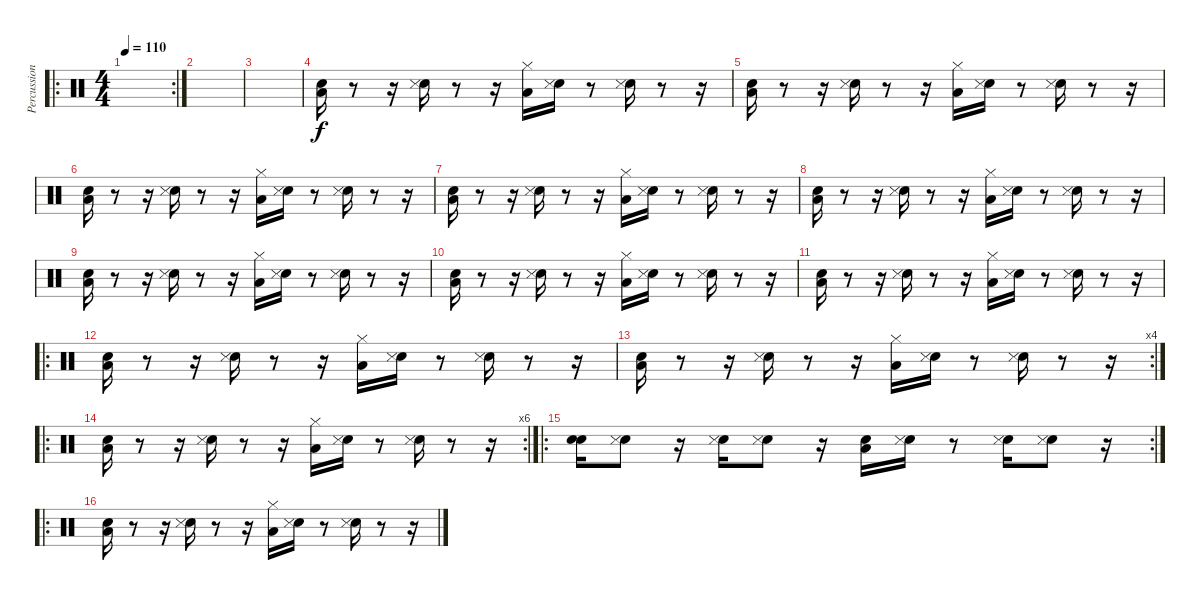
\track ("Percussions" "Percussion") {instrument percussion}
\staff {score}
\articulation defaults
\ro
\rc 2
\ts (4 4)
\tempo 110
\clef neutral
\ks c
|
|
|
("Low Floor Tom (hit)" "Snare (hit) 2").16 r.8 r.16 ("Electric Snare (hit)" "Snare (side stick) 3").16 r.8 r.16 ("Low Floor Tom (hit)" "Hi-Hat (closed)").16 ("Electric Snare (hit)" "Snare (side stick) 3").16 r.8 ("Electric Snare (hit)" "Snare (side stick) 3").16 r.8 r.16 |
("Low Floor Tom (hit)" "Snare (hit) 2").16 r.8 r.16 ("Electric Snare (hit)" "Snare (side stick) 3").16 r.8 r.16 ("Low Floor Tom (hit)" "Hi-Hat (closed)").16 ("Electric Snare (hit)" "Snare (side stick) 3").16 r.8 ("Electric Snare (hit)" "Snare (side stick) 3").16 r.8 r.16 |
("Low Floor Tom (hit)" "Snare (hit) 2").16 r.8 r.16 ("Electric Snare (hit)" "Snare (side stick) 3").16 r.8 r.16 ("Low Floor Tom (hit)" "Hi-Hat (closed)").16 ("Electric Snare (hit)" "Snare (side stick) 3").16 r.8 ("Electric Snare (hit)" "Snare (side stick) 3").16 r.8 r.16 |
("Low Floor Tom (hit)" "Snare (hit) 2").16 r.8 r.16 ("Electric Snare (hit)" "Snare (side stick) 3").16 r.8 r.16 ("Low Floor Tom (hit)" "Hi-Hat (closed)").16 ("Electric Snare (hit)" "Snare (side stick) 3").16 r.8 ("Electric Snare (hit)" "Snare (side stick) 3").16 r.8 r.16 |
("Low Floor Tom (hit)" "Snare (hit) 2").16 r.8 r.16 ("Electric Snare (hit)" "Snare (side stick) 3").16 r.8 r.16 ("Low Floor Tom (hit)" "Hi-Hat (closed)").16 ("Electric Snare (hit)" "Snare (side stick) 3").16 r.8 ("Electric Snare (hit)" "Snare (side stick) 3").16 r.8 r.16 |
("Low Floor Tom (hit)" "Snare (hit) 2").16 r.8 r.16 ("Electric Snare (hit)" "Snare (side stick) 3").16 r.8 r.16 ("Low Floor Tom (hit)" "Hi-Hat (closed)").16 ("Electric Snare (hit)" "Snare (side stick) 3").16 r.8 ("Electric Snare (hit)" "Snare (side stick) 3").16 r.8 r.16 |
("Low Floor Tom (hit)" "Snare (hit) 2").16 r.8 r.16 ("Electric Snare (hit)" "Snare (side stick) 3").16 r.8 r.16 ("Low Floor Tom (hit)" "Hi-Hat (closed)").16 ("Electric Snare (hit)" "Snare (side stick) 3").16 r.8 ("Electric Snare (hit)" "Snare (side stick) 3").16 r.8 r.16 |
("Low Floor Tom (hit)" "Snare (hit) 2").16 r.8 r.16 ("Electric Snare (hit)" "Snare (side stick) 3").16 r.8 r.16 ("Low Floor Tom (hit)" "Hi-Hat (closed)").16 ("Electric Snare (hit)" "Snare (side stick) 3").16 r.8 ("Electric Snare (hit)" "Snare (side stick) 3").16 r.8 r.16 |
\ro
("Low Floor Tom (hit)" "Snare (hit) 2").16 r.8 r.16 ("Electric Snare (hit)" "Snare (side stick) 3").16 r.8 r.16 ("Low Floor Tom (hit)" "Hi-Hat (closed)").16 ("Electric Snare (hit)" "Snare (side stick) 3").16 r.8 ("Electric Snare (hit)" "Snare (side stick) 3").16 r.8 r.16 |
\rc 4
("Low Floor Tom (hit)" "Snare (hit) 2").16 r.8 r.16 ("Electric Snare (hit)" "Snare (side stick) 3").16 r.8 r.16 ("Low Floor Tom (hit)" "Hi-Hat (closed)").16 ("Electric Snare (hit)" "Snare (side stick) 3").16 r.8 ("Electric Snare (hit)" "Snare (side stick) 3").16 r.8 r.16 |
\ro
\rc 6
("Low Floor Tom (hit)" "Snare (hit) 2").16 r.8 r.16 ("Electric Snare (hit)" "Snare (side stick) 3").16 r.8 r.16 ("Low Floor Tom (hit)" "Hi-Hat (closed)").16 ("Electric Snare (hit)" "Snare (side stick) 3").16 r.8 ("Electric Snare (hit)" "Snare (side stick) 3").16 r.8 r.16 |
\ro
\rc 2
("Electric Snare (hit)" "Snare (hit) 2").16 ("Electric Snare (hit)" "Snare (side stick) 3").8 r.16 ("Electric Snare (hit)" "Snare (side stick) 3").16 ("Electric Snare (hit)" "Snare (side stick) 3").8 r.16 ("Low Floor Tom (hit)" "Snare (hit) 2").16 ("Electric Snare (hit)" "Snare (side stick) 3").16 r.8 ("Electric Snare (hit)" "Snare (side stick) 3").16 ("Electric Snare (hit)" "Snare (side stick) 3").8 r.16 |
\ro
("Low Floor Tom (hit)" "Snare (hit) 2").16 r.8 r.16 ("Electric Snare (hit)" "Snare (side stick) 3").16 r.8 r.16 ("Low Floor Tom (hit)" "Hi-Hat (closed)").16 ("Electric Snare (hit)" "Snare (side stick) 3").16 r.8 ("Electric Snare (hit)" "Snare (side stick) 3").16 r.8 r.16
